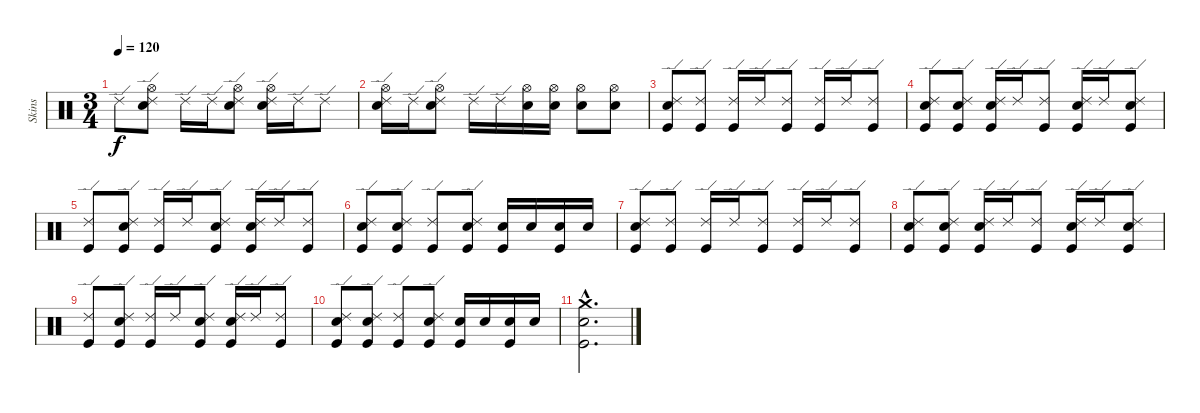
\track ("Skins" "Skins") {instrument percussion}
\staff {score}
\articulation defaults
\ts (3 4)
\tempo 120
\clef neutral
\ks c "Ride (edge) 2".8{dy f}
("Electric Snare (hit)" "Ride (edge) 2" "Hi-Hat (open)").8 "Ride (edge) 2".16 "Ride (edge) 2".16 ("Electric Snare (hit)" "Ride (edge) 2" "Hi-Hat (open)").8 ("Electric Snare (hit)" "Ride (edge) 2" "Hi-Hat (open)").16 "Ride (edge) 2".16 "Ride (edge) 2".8 |
("Electric Snare (hit)" "Ride (edge) 2" "Hi-Hat (open)").16 "Ride (edge) 2".16 ("Electric Snare (hit)" "Ride (edge) 2" "Hi-Hat (open)").8 "Ride (edge) 2".16 "Ride (edge) 2".16 ("Electric Snare (hit)" "Hi-Hat (open)").16 ("Electric Snare (hit)" "Hi-Hat (open)").16 ("Electric Snare (hit)" "Hi-Hat (open)").8 ("Electric Snare (hit)" "Hi-Hat (open)").8 |
("Electric Snare (hit)" "Ride (edge) 2" "Kick (hit)").8 ("Ride (edge) 2" "Kick (hit)").8 ("Ride (edge) 2" "Kick (hit)").16 "Ride (edge) 2".16 ("Ride (edge) 2" "Kick (hit)").8 ("Ride (edge) 2" "Kick (hit)").16 "Ride (edge) 2".16 ("Ride (edge) 2" "Kick (hit)").8 |
("Electric Snare (hit)" "Ride (edge) 2" "Kick (hit)").8 ("Electric Snare (hit)" "Ride (edge) 2" "Kick (hit)").8 ("Electric Snare (hit)" "Ride (edge) 2" "Kick (hit)").16 "Ride (edge) 2".16 ("Ride (edge) 2" "Kick (hit)").8 ("Electric Snare (hit)" "Ride (edge) 2" "Kick (hit)").16 "Ride (edge) 2".16 ("Electric Snare (hit)" "Ride (edge) 2" "Kick (hit)").8 |
("Ride (edge) 2" "Kick (hit)").8 ("Electric Snare (hit)" "Ride (edge) 2" "Kick (hit)").8 ("Ride (edge) 2" "Kick (hit)").16 "Ride (edge) 2".16 ("Electric Snare (hit)" "Ride (edge) 2" "Kick (hit)").8 ("Electric Snare (hit)" "Ride (edge) 2" "Kick (hit)").16 "Ride (edge) 2".16 ("Ride (edge) 2" "Kick (hit)").8 |
("Electric Snare (hit)" "Ride (edge) 2" "Kick (hit)").8 ("Electric Snare (hit)" "Ride (edge) 2" "Kick (hit)").8 ("Ride (edge) 2" "Kick (hit)").8 ("Electric Snare (hit)" "Ride (edge) 2" "Kick (hit)").8 ("Electric Snare (hit)" "Kick (hit)").16 "Electric Snare (hit)".16 ("Electric Snare (hit)" "Kick (hit)").16 "Electric Snare (hit)".16 |
("Electric Snare (hit)" "Ride (edge) 2" "Kick (hit)").8 ("Ride (edge) 2" "Kick (hit)").8 ("Ride (edge) 2" "Kick (hit)").16 "Ride (edge) 2".16 ("Ride (edge) 2" "Kick (hit)").8 ("Ride (edge) 2" "Kick (hit)").16 "Ride (edge) 2".16 ("Ride (edge) 2" "Kick (hit)").8 |
("Electric Snare (hit)" "Ride (edge) 2" "Kick (hit)").8 ("Electric Snare (hit)" "Ride (edge) 2" "Kick (hit)").8 ("Electric Snare (hit)" "Ride (edge) 2" "Kick (hit)").16 "Ride (edge) 2".16 ("Ride (edge) 2" "Kick (hit)").8 ("Electric Snare (hit)" "Ride (edge) 2" "Kick (hit)").16 "Ride (edge) 2".16 ("Electric Snare (hit)" "Ride (edge) 2" "Kick (hit)").8 |
("Ride (edge) 2" "Kick (hit)").8 ("Electric Snare (hit)" "Ride (edge) 2" "Kick (hit)").8 ("Ride (edge) 2" "Kick (hit)").16 "Ride (edge) 2".16 ("Electric Snare (hit)" "Ride (edge) 2" "Kick (hit)").8 ("Electric Snare (hit)" "Ride (edge) 2" "Kick (hit)").16 "Ride (edge) 2".16 ("Ride (edge) 2" "Kick (hit)").8 |
("Electric Snare (hit)" "Ride (edge) 2" "Kick (hit)").8 ("Electric Snare (hit)" "Ride (edge) 2" "Kick (hit)").8 ("Ride (edge) 2" "Kick (hit)").8 ("Electric Snare (hit)" "Ride (edge) 2" "Kick (hit)").8 ("Electric Snare (hit)" "Kick (hit)").16 "Electric Snare (hit)".16 ("Electric Snare (hit)" "Kick (hit)").16 "Electric Snare (hit)".16 |
("Crash medium (hit)"{hac} "Electric Snare (hit)"{hac} "Kick (hit)"{hac}).2{d}
